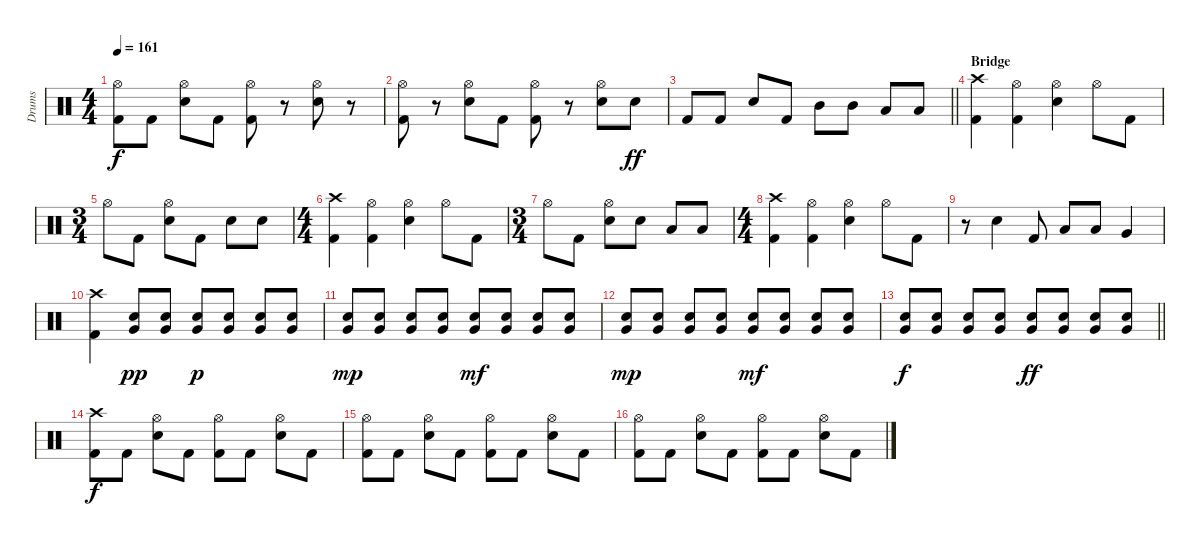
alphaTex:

\track ("Drums" "Drums") {instrument percussion}
\staff {score}
\articulation defaults
\ts (4 4)
\tempo 161
\clef neutral
\ks c
("Hi-Hat (open)" "Kick (hit) 2").8{dy f} "Kick (hit) 2".8 ("Hi-Hat (open)" "Snare (hit) 2").8 "Kick (hit) 2".8 ("Hi-Hat (open)" "Kick (hit) 2").8 r.8 ("Hi-Hat (open)" "Snare (hit) 2").8 r.8 |
("Hi-Hat (open)" "Kick (hit) 2").8 r.8 ("Hi-Hat (open)" "Snare (hit) 2").8 "Kick (hit) 2".8 ("Hi-Hat (open)" "Kick (hit) 2").8 r.8 ("Hi-Hat (open)" "Snare (hit) 2").8 "Snare (hit) 2".8{dy ff} |
\barLineRight lightlight "Kick (hit) 2".8 "Kick (hit) 2".8 "Snare (hit) 2".8 "Kick (hit) 2".8 "Mid Tom (hit)".8 "Mid Tom (hit)".8 "Low Tom (hit)".8 "Low Tom (hit)".8
|
\section ("" "Bridge")
("Crash high (hit)" "Kick (hit) 2").4 ("Hi-Hat (open)" "Kick (hit) 2").4 ("Hi-Hat (open)" "Snare (hit) 2").4 "Hi-Hat (open)".8 "Kick (hit) 2".8 |
\ts (3 4)
"Hi-Hat (open)".8 "Kick (hit) 2".8 ("Hi-Hat (open)" "Snare (hit) 2").8 "Kick (hit) 2".8 "Snare (hit) 2".8 "Snare (hit) 2".8 |
\ts (4 4)
("Crash high (hit)" "Kick (hit) 2").4 ("Hi-Hat (open)" "Kick (hit) 2").4 ("Hi-Hat (open)" "Snare (hit) 2").4 "Hi-Hat (open)".8 "Kick (hit) 2".8 |
\ts (3 4)
"Hi-Hat (open)".8 "Kick (hit) 2".8 ("Hi-Hat (open)" "Snare (hit) 2").8 "Snare (hit) 2".8 "Low Tom (hit)".8 "Low Tom (hit)".8 |
\ts (4 4)
("Crash high (hit)" "Kick (hit) 2").4 ("Hi-Hat (open)" "Kick (hit) 2").4 ("Hi-Hat (open)" "Snare (hit) 2").4 "Hi-Hat (open)".8 "Kick (hit) 2".8 |
r.8 "Snare (hit) 2".4 "Kick (hit) 2".8 "Low Tom (hit)".8 "Low Tom (hit)".8 "Very Low Tom (hit)".4 |
("Crash high (hit)" "Kick (hit) 2").4 ("Very Low Tom (hit)" "Snare (hit) 2").8{dy pp} ("Very Low Tom (hit)" "Snare (hit) 2").8 ("Very Low Tom (hit)" "Snare (hit) 2").8{dy p} ("Very Low Tom (hit)" "Snare (hit) 2").8 ("Very Low Tom (hit)" "Snare (hit) 2").8 ("Very Low Tom (hit)" "Snare (hit) 2").8 |
("Very Low Tom (hit)" "Snare (hit) 2").8{dy mp} ("Very Low Tom (hit)" "Snare (hit) 2").8 ("Very Low Tom (hit)" "Snare (hit) 2").8 ("Very Low Tom (hit)" "Snare (hit) 2").8 ("Very Low Tom (hit)" "Snare (hit) 2").8{dy mf} ("Very Low Tom (hit)" "Snare (hit) 2").8 ("Very Low Tom (hit)" "Snare (hit) 2").8 ("Very Low Tom (hit)" "Snare (hit) 2").8 |
("Very Low Tom (hit)" "Snare (hit) 2").8{dy mp} ("Very Low Tom (hit)" "Snare (hit) 2").8 ("Very Low Tom (hit)" "Snare (hit) 2").8 ("Very Low Tom (hit)" "Snare (hit) 2").8 ("Very Low Tom (hit)" "Snare (hit) 2").8{dy mf} ("Very Low Tom (hit)" "Snare (hit) 2").8 ("Very Low Tom (hit)" "Snare (hit) 2").8 ("Very Low Tom (hit)" "Snare (hit) 2").8 |
\barLineRight lightlight
("Very Low Tom (hit)" "Snare (hit) 2").8{dy f} ("Very Low Tom (hit)" "Snare (hit) 2").8 ("Very Low Tom (hit)" "Snare (hit) 2").8 ("Very Low Tom (hit)" "Snare (hit) 2").8 ("Very Low Tom (hit)" "Snare (hit) 2").8{dy ff} ("Very Low Tom (hit)" "Snare (hit) 2").8 ("Very Low Tom (hit)" "Snare (hit) 2").8 ("Very Low Tom (hit)" "Snare (hit) 2").8 |
("Crash high (hit)" "Kick (hit) 2").8{dy f} "Kick (hit) 2".8 ("Hi-Hat (open)" "Snare (hit) 2").8 "Kick (hit) 2".8 ("Hi-Hat (open)" "Kick (hit) 2").8 "Kick (hit) 2".8 ("Hi-Hat (open)" "Snare (hit) 2").8 "Kick (hit) 2".8 |
("Hi-Hat (open)" "Kick (hit) 2").8 "Kick (hit) 2".8 ("Hi-Hat (open)" "Snare (hit) 2").8 "Kick (hit) 2".8 ("Hi-Hat (open)" "Kick (hit) 2").8 "Kick (hit) 2".8 ("Hi-Hat (open)" "Snare (hit) 2").8 "Kick (hit) 2".8 |
("Hi-Hat (open)" "Kick (hit) 2").8 "Kick (hit) 2".8 ("Hi-Hat (open)" "Snare (hit) 2").8 "Kick (hit) 2".8 ("Hi-Hat (open)" "Kick (hit) 2").8 "Kick (hit) 2".8 ("Hi-Hat (open)" "Snare (hit) 2").8 "Kick (hit) 2".8
